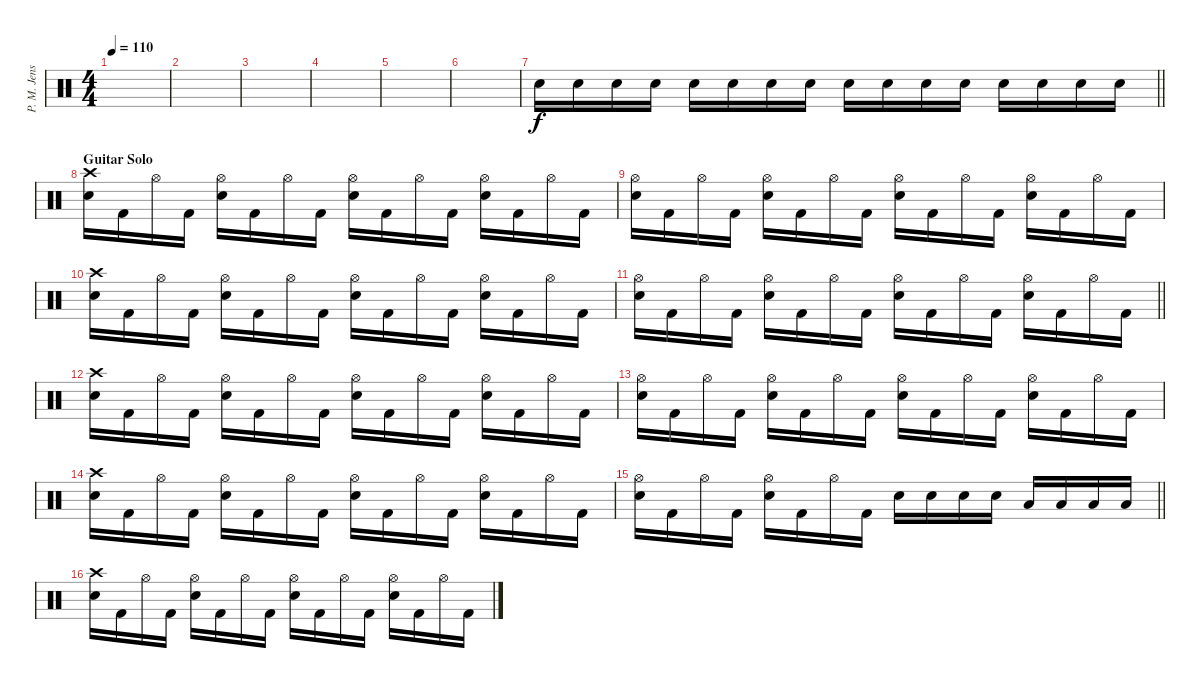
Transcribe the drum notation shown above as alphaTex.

\track ("P. M. Jensen" "P. M. Jens") {instrument percussion}
\staff {score}
\articulation defaults
\ts (4 4)
\tempo 110
\clef neutral
\ks c
|
|
|
|
|
|
\barLineRight lightlight "Electric Snare (hit)".16 "Electric Snare (hit)".16 "Electric Snare (hit)".16 "Electric Snare (hit)".16 "Electric Snare (hit)".16 "Electric Snare (hit)".16 "Electric Snare (hit)".16 "Electric Snare (hit)".16 "Electric Snare (hit)".16 "Electric Snare (hit)".16 "Electric Snare (hit)".16 "Electric Snare (hit)".16 "Electric Snare (hit)".16 "Electric Snare (hit)".16 "Electric Snare (hit)".16 "Electric Snare (hit)".16
|
\section ("" "Guitar Solo")
("Crash high (hit)" "Electric Snare (hit)").16 "Kick (hit) 2".16 "Hi-Hat (open)".16 "Kick (hit) 2".16 ("Hi-Hat (open)" "Electric Snare (hit)").16 "Kick (hit) 2".16 "Hi-Hat (open)".16 "Kick (hit) 2".16 ("Hi-Hat (open)" "Electric Snare (hit)").16 "Kick (hit) 2".16 "Hi-Hat (open)".16 "Kick (hit) 2".16 ("Hi-Hat (open)" "Electric Snare (hit)").16 "Kick (hit) 2".16 "Hi-Hat (open)".16 "Kick (hit) 2".16 |
("Hi-Hat (open)" "Electric Snare (hit)").16 "Kick (hit) 2".16 "Hi-Hat (open)".16 "Kick (hit) 2".16 ("Hi-Hat (open)" "Electric Snare (hit)").16 "Kick (hit) 2".16 "Hi-Hat (open)".16 "Kick (hit) 2".16 ("Hi-Hat (open)" "Electric Snare (hit)").16 "Kick (hit) 2".16 "Hi-Hat (open)".16 "Kick (hit) 2".16 ("Hi-Hat (open)" "Electric Snare (hit)").16 "Kick (hit) 2".16 "Hi-Hat (open)".16 "Kick (hit) 2".16 |
("Crash high (hit)" "Electric Snare (hit)").16 "Kick (hit) 2".16 "Hi-Hat (open)".16 "Kick (hit) 2".16 ("Hi-Hat (open)" "Electric Snare (hit)").16 "Kick (hit) 2".16 "Hi-Hat (open)".16 "Kick (hit) 2".16 ("Hi-Hat (open)" "Electric Snare (hit)").16 "Kick (hit) 2".16 "Hi-Hat (open)".16 "Kick (hit) 2".16 ("Hi-Hat (open)" "Electric Snare (hit)").16 "Kick (hit) 2".16 "Hi-Hat (open)".16 "Kick (hit) 2".16 |
\barLineRight lightlight
("Hi-Hat (open)" "Electric Snare (hit)").16 "Kick (hit) 2".16 "Hi-Hat (open)".16 "Kick (hit) 2".16 ("Hi-Hat (open)" "Electric Snare (hit)").16 "Kick (hit) 2".16 "Hi-Hat (open)".16 "Kick (hit) 2".16 ("Hi-Hat (open)" "Electric Snare (hit)").16 "Kick (hit) 2".16 "Hi-Hat (open)".16 "Kick (hit) 2".16 ("Hi-Hat (open)" "Electric Snare (hit)").16 "Kick (hit) 2".16 "Hi-Hat (open)".16 "Kick (hit) 2".16 |
("Crash high (hit)" "Electric Snare (hit)").16 "Kick (hit) 2".16 "Hi-Hat (open)".16 "Kick (hit) 2".16 ("Hi-Hat (open)" "Electric Snare (hit)").16 "Kick (hit) 2".16 "Hi-Hat (open)".16 "Kick (hit) 2".16 ("Hi-Hat (open)" "Electric Snare (hit)").16 "Kick (hit) 2".16 "Hi-Hat (open)".16 "Kick (hit) 2".16 ("Hi-Hat (open)" "Electric Snare (hit)").16 "Kick (hit) 2".16 "Hi-Hat (open)".16 "Kick (hit) 2".16 |
("Hi-Hat (open)" "Electric Snare (hit)").16 "Kick (hit) 2".16 "Hi-Hat (open)".16 "Kick (hit) 2".16 ("Hi-Hat (open)" "Electric Snare (hit)").16 "Kick (hit) 2".16 "Hi-Hat (open)".16 "Kick (hit) 2".16 ("Hi-Hat (open)" "Electric Snare (hit)").16 "Kick (hit) 2".16 "Hi-Hat (open)".16 "Kick (hit) 2".16 ("Hi-Hat (open)" "Electric Snare (hit)").16 "Kick (hit) 2".16 "Hi-Hat (open)".16 "Kick (hit) 2".16 |
("Crash high (hit)" "Electric Snare (hit)").16 "Kick (hit) 2".16 "Hi-Hat (open)".16 "Kick (hit) 2".16 ("Hi-Hat (open)" "Electric Snare (hit)").16 "Kick (hit) 2".16 "Hi-Hat (open)".16 "Kick (hit) 2".16 ("Hi-Hat (open)" "Electric Snare (hit)").16 "Kick (hit) 2".16 "Hi-Hat (open)".16 "Kick (hit) 2".16 ("Hi-Hat (open)" "Electric Snare (hit)").16 "Kick (hit) 2".16 "Hi-Hat (open)".16 "Kick (hit) 2".16 |
\barLineRight lightlight
("Hi-Hat (open)" "Electric Snare (hit)").16 "Kick (hit) 2".16 "Hi-Hat (open)".16 "Kick (hit) 2".16 ("Hi-Hat (open)" "Electric Snare (hit)").16 "Kick (hit) 2".16 "Hi-Hat (open)".16 "Kick (hit) 2".16 "Electric Snare (hit)".16 "Electric Snare (hit)".16 "Electric Snare (hit)".16 "Electric Snare (hit)".16 "Low Tom (hit)".16 "Low Tom (hit)".16 "Low Tom (hit)".16 "Low Tom (hit)".16 |
("Crash high (hit)" "Electric Snare (hit)").16 "Kick (hit) 2".16 "Hi-Hat (open)".16 "Kick (hit) 2".16 ("Hi-Hat (open)" "Electric Snare (hit)").16 "Kick (hit) 2".16 "Hi-Hat (open)".16 "Kick (hit) 2".16 ("Hi-Hat (open)" "Electric Snare (hit)").16 "Kick (hit) 2".16 "Hi-Hat (open)".16 "Kick (hit) 2".16 ("Hi-Hat (open)" "Electric Snare (hit)").16 "Kick (hit) 2".16 "Hi-Hat (open)".16 "Kick (hit) 2".16
